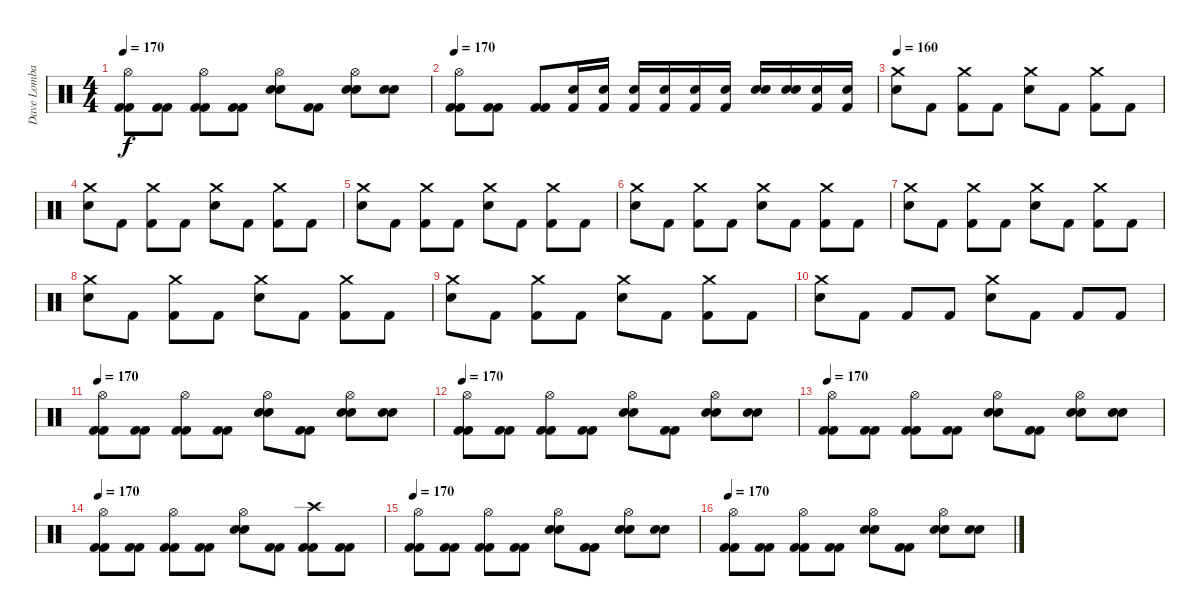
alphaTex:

\track ("Dave Lombardo" "Dave Lomba") {instrument percussion}
\staff {score}
\articulation defaults
\ts (4 4)
\tempo 170
\clef neutral
\ks c
("Hi-Hat (open)" "Kick (hit) 2" "Kick (hit) 2").8{dy f} ("Kick (hit) 2" "Kick (hit) 2").8 ("Hi-Hat (open)" "Kick (hit) 2" "Kick (hit) 2").8 ("Kick (hit) 2" "Kick (hit) 2").8 ("Hi-Hat (open)" "Snare (hit) 2" "Snare (hit) 2").8 ("Kick (hit) 2" "Kick (hit) 2").8 ("Hi-Hat (open)" "Snare (hit) 2" "Snare (hit) 2").8 ("Snare (hit) 2" "Snare (hit) 2").8 |
\tempo 170
("Hi-Hat (open)" "Kick (hit) 2" "Kick (hit) 2").8 ("Kick (hit) 2" "Kick (hit) 2").8 ("Kick (hit) 2" "Kick (hit) 2").8 ("Electric Snare (hit)" "Kick (hit) 2").16 ("Electric Snare (hit)" "Kick (hit) 2").16 ("Electric Snare (hit)" "Kick (hit) 2").16 ("Electric Snare (hit)" "Kick (hit) 2").16 ("Electric Snare (hit)" "Kick (hit) 2").16 ("Electric Snare (hit)" "Kick (hit) 2").16 ("Snare (hit) 2" "Snare (hit) 2").16 ("Snare (hit) 2" "Snare (hit) 2").16 ("Electric Snare (hit)" "Kick (hit) 2").16 ("Electric Snare (hit)" "Kick (hit) 2").16 |
\tempo 160
("Crash medium (hit)" "Electric Snare (hit)").8 "Kick (hit) 2".8 ("Crash medium (hit)" "Kick (hit) 2").8 "Kick (hit) 2".8 ("Crash medium (hit)" "Electric Snare (hit)").8 "Kick (hit) 2".8 ("Crash medium (hit)" "Kick (hit) 2").8 "Kick (hit) 2".8 |
("Crash medium (hit)" "Electric Snare (hit)").8 "Kick (hit) 2".8 ("Crash medium (hit)" "Kick (hit) 2").8 "Kick (hit) 2".8 ("Crash medium (hit)" "Electric Snare (hit)").8 "Kick (hit) 2".8 ("Crash medium (hit)" "Kick (hit) 2").8 "Kick (hit) 2".8 |
("Crash medium (hit)" "Electric Snare (hit)").8 "Kick (hit) 2".8 ("Crash medium (hit)" "Kick (hit) 2").8 "Kick (hit) 2".8 ("Crash medium (hit)" "Electric Snare (hit)").8 "Kick (hit) 2".8 ("Crash medium (hit)" "Kick (hit) 2").8 "Kick (hit) 2".8 |
("Crash medium (hit)" "Electric Snare (hit)").8 "Kick (hit) 2".8 ("Crash medium (hit)" "Kick (hit) 2").8 "Kick (hit) 2".8 ("Crash medium (hit)" "Electric Snare (hit)").8 "Kick (hit) 2".8 ("Crash medium (hit)" "Kick (hit) 2").8 "Kick (hit) 2".8 |
("Crash medium (hit)" "Electric Snare (hit)").8 "Kick (hit) 2".8 ("Crash medium (hit)" "Kick (hit) 2").8 "Kick (hit) 2".8 ("Crash medium (hit)" "Electric Snare (hit)").8 "Kick (hit) 2".8 ("Crash medium (hit)" "Kick (hit) 2").8 "Kick (hit) 2".8 |
("Crash medium (hit)" "Electric Snare (hit)").8 "Kick (hit) 2".8 ("Crash medium (hit)" "Kick (hit) 2").8 "Kick (hit) 2".8 ("Crash medium (hit)" "Electric Snare (hit)").8 "Kick (hit) 2".8 ("Crash medium (hit)" "Kick (hit) 2").8 "Kick (hit) 2".8 |
("Crash medium (hit)" "Electric Snare (hit)").8 "Kick (hit) 2".8 ("Crash medium (hit)" "Kick (hit) 2").8 "Kick (hit) 2".8 ("Crash medium (hit)" "Electric Snare (hit)").8 "Kick (hit) 2".8 ("Crash medium (hit)" "Kick (hit) 2").8 "Kick (hit) 2".8 |
("Crash medium (hit)" "Electric Snare (hit)").8 "Kick (hit) 2".8 "Kick (hit) 2".8 "Kick (hit) 2".8 ("Crash medium (hit)" "Electric Snare (hit)").8 "Kick (hit) 2".8 "Kick (hit) 2".8 "Kick (hit) 2".8 |
\tempo 170
("Hi-Hat (open)" "Kick (hit) 2" "Kick (hit) 2").8 ("Kick (hit) 2" "Kick (hit) 2").8 ("Hi-Hat (open)" "Kick (hit) 2" "Kick (hit) 2").8 ("Kick (hit) 2" "Kick (hit) 2").8 ("Hi-Hat (open)" "Snare (hit) 2" "Snare (hit) 2").8 ("Kick (hit) 2" "Kick (hit) 2").8 ("Hi-Hat (open)" "Snare (hit) 2" "Snare (hit) 2").8 ("Snare (hit) 2" "Snare (hit) 2").8 |
\tempo 170
("Hi-Hat (open)" "Kick (hit) 2" "Kick (hit) 2").8 ("Kick (hit) 2" "Kick (hit) 2").8 ("Hi-Hat (open)" "Kick (hit) 2" "Kick (hit) 2").8 ("Kick (hit) 2" "Kick (hit) 2").8 ("Hi-Hat (open)" "Snare (hit) 2" "Snare (hit) 2").8 ("Kick (hit) 2" "Kick (hit) 2").8 ("Hi-Hat (open)" "Snare (hit) 2" "Snare (hit) 2").8 ("Snare (hit) 2" "Snare (hit) 2").8 |
\tempo 170
("Hi-Hat (open)" "Kick (hit) 2" "Kick (hit) 2").8 ("Kick (hit) 2" "Kick (hit) 2").8 ("Hi-Hat (open)" "Kick (hit) 2" "Kick (hit) 2").8 ("Kick (hit) 2" "Kick (hit) 2").8 ("Hi-Hat (open)" "Snare (hit) 2" "Snare (hit) 2").8 ("Kick (hit) 2" "Kick (hit) 2").8 ("Hi-Hat (open)" "Snare (hit) 2" "Snare (hit) 2").8 ("Snare (hit) 2" "Snare (hit) 2").8 |
\tempo 170
("Hi-Hat (open)" "Kick (hit) 2" "Kick (hit) 2").8 ("Kick (hit) 2" "Kick (hit) 2").8 ("Hi-Hat (open)" "Kick (hit) 2" "Kick (hit) 2").8 ("Kick (hit) 2" "Kick (hit) 2").8 ("Hi-Hat (open)" "Snare (hit) 2" "Snare (hit) 2").8 ("Kick (hit) 2" "Kick (hit) 2").8 ("Crash high (hit)" "Kick (hit) 2" "Kick (hit) 2").8 ("Kick (hit) 2" "Kick (hit) 2").8 |
\tempo 170
("Hi-Hat (open)" "Kick (hit) 2" "Kick (hit) 2").8 ("Kick (hit) 2" "Kick (hit) 2").8 ("Hi-Hat (open)" "Kick (hit) 2" "Kick (hit) 2").8 ("Kick (hit) 2" "Kick (hit) 2").8 ("Hi-Hat (open)" "Snare (hit) 2" "Snare (hit) 2").8 ("Kick (hit) 2" "Kick (hit) 2").8 ("Hi-Hat (open)" "Snare (hit) 2" "Snare (hit) 2").8 ("Snare (hit) 2" "Snare (hit) 2").8 |
\tempo 170
("Hi-Hat (open)" "Kick (hit) 2" "Kick (hit) 2").8 ("Kick (hit) 2" "Kick (hit) 2").8 ("Hi-Hat (open)" "Kick (hit) 2" "Kick (hit) 2").8 ("Kick (hit) 2" "Kick (hit) 2").8 ("Hi-Hat (open)" "Snare (hit) 2" "Snare (hit) 2").8 ("Kick (hit) 2" "Kick (hit) 2").8 ("Hi-Hat (open)" "Snare (hit) 2" "Snare (hit) 2").8 ("Snare (hit) 2" "Snare (hit) 2").8
